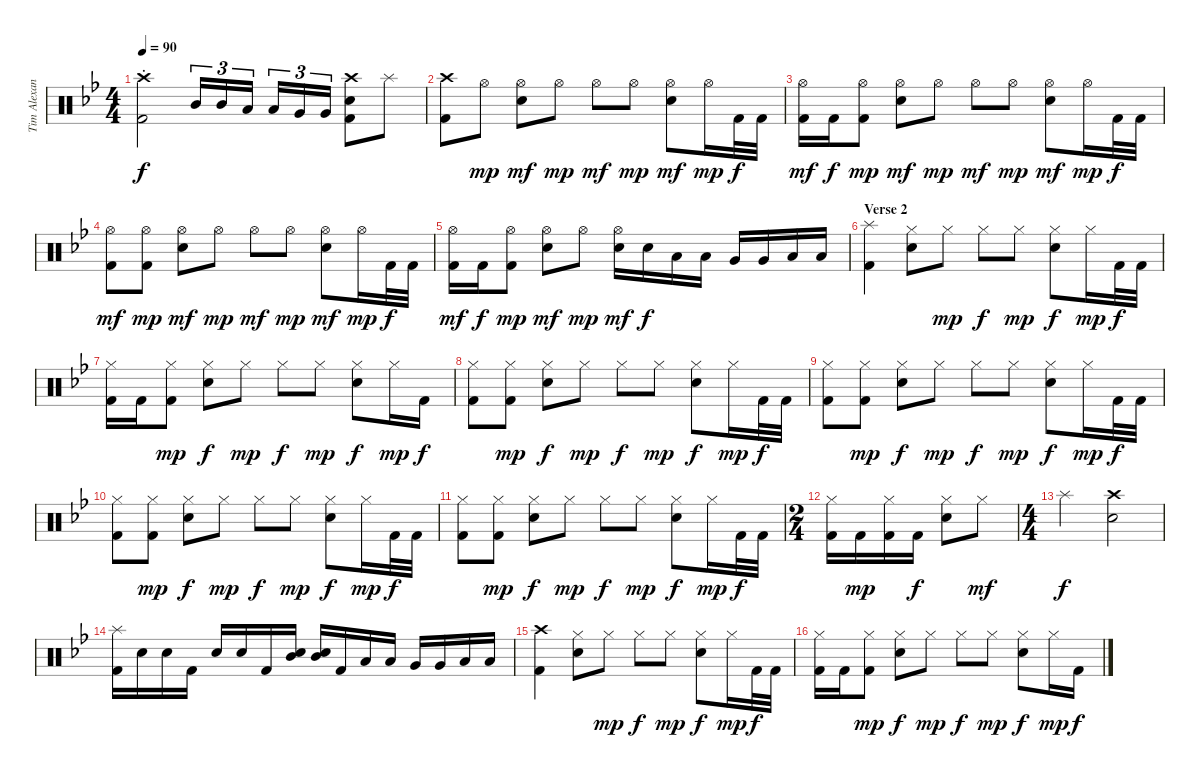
\track ("Tim Alexander - Drums" "Tim Alexan") {instrument percussion}
\staff {score}
\articulation defaults
\ts (4 4)
\tempo 90
\clef neutral
\ks bb
("Crash high (hit)"{st} "Kick (hit) 2").2{dy f} "Mid Tom (hit)".16{tu (3 2)} "Mid Tom (hit)".16{tu (3 2)} "Low Tom (hit)".16{tu (3 2)} "Low Tom (hit)".16{tu (3 2)} "Very Low Tom (hit)".16{tu (3 2)} "Very Low Tom (hit)".16{tu (3 2)} ("Crash high (hit)" "Snare (hit) 2" "Kick (hit) 2").8 "Splash (hit)".8 |
("Crash high (hit)" "Kick (hit) 2").8 "Hi-Hat (open)".8{dy mp} ("Hi-Hat (open)" "Snare (hit) 2").8{dy mf} "Hi-Hat (open)".8{dy mp} "Hi-Hat (open)".8{dy mf} "Hi-Hat (open)".8{dy mp} ("Hi-Hat (open)" "Snare (hit) 2").8{dy mf} "Hi-Hat (open)".16{dy mp} "Kick (hit) 2".32{dy f} "Kick (hit) 2".32 |
("Hi-Hat (open)" "Kick (hit) 2").16{dy mf} "Kick (hit) 2".16{dy f} ("Hi-Hat (open)" "Kick (hit) 2").8{dy mp} ("Hi-Hat (open)" "Snare (hit) 2").8{dy mf} "Hi-Hat (open)".8{dy mp} "Hi-Hat (open)".8{dy mf} "Hi-Hat (open)".8{dy mp} ("Hi-Hat (open)" "Snare (hit) 2").8{dy mf} "Hi-Hat (open)".16{dy mp} "Kick (hit) 2".32{dy f} "Kick (hit) 2".32 |
("Hi-Hat (open)" "Kick (hit) 2").8{dy mf} ("Hi-Hat (open)" "Kick (hit) 2").8{dy mp} ("Hi-Hat (open)" "Snare (hit) 2").8{dy mf} "Hi-Hat (open)".8{dy mp} "Hi-Hat (open)".8{dy mf} "Hi-Hat (open)".8{dy mp} ("Hi-Hat (open)" "Snare (hit) 2").8{dy mf} "Hi-Hat (open)".16{dy mp} "Kick (hit) 2".32{dy f} "Kick (hit) 2".32 |
("Hi-Hat (open)" "Kick (hit) 2").16{dy mf} "Kick (hit) 2".16{dy f} ("Hi-Hat (open)" "Kick (hit) 2").8{dy mp} ("Hi-Hat (open)" "Snare (hit) 2").8{dy mf} "Hi-Hat (open)".8{dy mp} ("Hi-Hat (open)" "Snare (hit) 2").16{dy mf} "Snare (hit) 2".16{dy f} "Low Tom (hit)".16 "Low Tom (hit)".16 "Very Low Tom (hit)".16 "Very Low Tom (hit)".16 "Low Floor Tom (hit)".16 "Low Floor Tom (hit)".16 |
\section ("" "Verse 2")
("Splash (hit)" "Kick (hit) 2").4 ("Hi-Hat (closed)" "Snare (hit) 2").8 "Hi-Hat (closed)".8{dy mp} "Hi-Hat (closed)".8{dy f} "Hi-Hat (closed)".8{dy mp} ("Hi-Hat (closed)" "Snare (hit) 2").8{dy f} "Hi-Hat (closed)".16{dy mp} "Kick (hit) 2".32{dy f} "Kick (hit) 2".32 |
("Hi-Hat (closed)" "Kick (hit) 2").16 "Kick (hit) 2".16 ("Hi-Hat (closed)" "Kick (hit) 2").8{dy mp} ("Hi-Hat (closed)" "Snare (hit) 2").8{dy f} "Hi-Hat (closed)".8{dy mp} "Hi-Hat (closed)".8{dy f} "Hi-Hat (closed)".8{dy mp} ("Hi-Hat (closed)" "Snare (hit) 2").8{dy f} "Hi-Hat (closed)".16{dy mp} "Kick (hit) 2".16{dy f} |
("Hi-Hat (closed)" "Kick (hit) 2").8 ("Hi-Hat (closed)" "Kick (hit) 2").8{dy mp} ("Hi-Hat (closed)" "Snare (hit) 2").8{dy f} "Hi-Hat (closed)".8{dy mp} "Hi-Hat (closed)".8{dy f} "Hi-Hat (closed)".8{dy mp} ("Hi-Hat (closed)" "Snare (hit) 2").8{dy f} "Hi-Hat (closed)".16{dy mp} "Kick (hit) 2".32{dy f} "Kick (hit) 2".32 |
("Hi-Hat (closed)" "Kick (hit) 2").8 ("Hi-Hat (closed)" "Kick (hit) 2").8{dy mp} ("Hi-Hat (closed)" "Snare (hit) 2").8{dy f} "Hi-Hat (closed)".8{dy mp} "Hi-Hat (closed)".8{dy f} "Hi-Hat (closed)".8{dy mp} ("Hi-Hat (closed)" "Snare (hit) 2").8{dy f} "Hi-Hat (closed)".16{dy mp} "Kick (hit) 2".32{dy f} "Kick (hit) 2".32 |
("Hi-Hat (closed)" "Kick (hit) 2").8 ("Hi-Hat (closed)" "Kick (hit) 2").8{dy mp} ("Hi-Hat (closed)" "Snare (hit) 2").8{dy f} "Hi-Hat (closed)".8{dy mp} "Hi-Hat (closed)".8{dy f} "Hi-Hat (closed)".8{dy mp} ("Hi-Hat (closed)" "Snare (hit) 2").8{dy f} "Hi-Hat (closed)".16{dy mp} "Kick (hit) 2".32{dy f} "Kick (hit) 2".32 |
("Hi-Hat (closed)" "Kick (hit) 2").8 ("Hi-Hat (closed)" "Kick (hit) 2").8{dy mp} ("Hi-Hat (closed)" "Snare (hit) 2").8{dy f} "Hi-Hat (closed)".8{dy mp} "Hi-Hat (closed)".8{dy f} "Hi-Hat (closed)".8{dy mp} ("Hi-Hat (closed)" "Snare (hit) 2").8{dy f} "Hi-Hat (closed)".16{dy mp} "Kick (hit) 2".32{dy f} "Kick (hit) 2".32 |
\ts (2 4)
("Hi-Hat (closed)" "Kick (hit) 2").16 "Kick (hit) 2".16{dy mp} ("Hi-Hat (closed)" "Kick (hit) 2").16 "Kick (hit) 2".16{dy f} ("Hi-Hat (closed)" "Snare (hit) 2").8 "Hi-Hat (closed)".8{dy mf} |
\ts (4 4)
"Splash (hit)".2{dy f} ("Crash high (hit)" "Snare (hit) 2").2 |
("Splash (hit)" "Kick (hit) 2").16 "Snare (hit) 2".16 "Snare (hit) 2".16 "Kick (hit) 2".16 "Snare (hit) 2".16 "Snare (hit) 2".16 "Kick (hit) 2".16 ("Mid Tom (hit)" "Snare (hit) 2").16 ("Mid Tom (hit)" "Snare (hit) 2").16 "Kick (hit) 2".16 "Low Tom (hit)".16 "Low Tom (hit)".16 "Very Low Tom (hit)".16 "Very Low Tom (hit)".16 "Low Floor Tom (hit)".16 "Low Floor Tom (hit)".16 |
("Crash high (hit)" "Kick (hit) 2").4 ("Hi-Hat (closed)" "Snare (hit) 2").8 "Hi-Hat (closed)".8{dy mp} "Hi-Hat (closed)".8{dy f} "Hi-Hat (closed)".8{dy mp} ("Hi-Hat (closed)" "Snare (hit) 2").8{dy f} "Hi-Hat (closed)".16{dy mp} "Kick (hit) 2".32{dy f} "Kick (hit) 2".32 |
("Hi-Hat (closed)" "Kick (hit) 2").16 "Kick (hit) 2".16 ("Hi-Hat (closed)" "Kick (hit) 2").8{dy mp} ("Hi-Hat (closed)" "Snare (hit) 2").8{dy f} "Hi-Hat (closed)".8{dy mp} "Hi-Hat (closed)".8{dy f} "Hi-Hat (closed)".8{dy mp} ("Hi-Hat (closed)" "Snare (hit) 2").8{dy f} "Hi-Hat (closed)".16{dy mp} "Kick (hit) 2".16{dy f}
